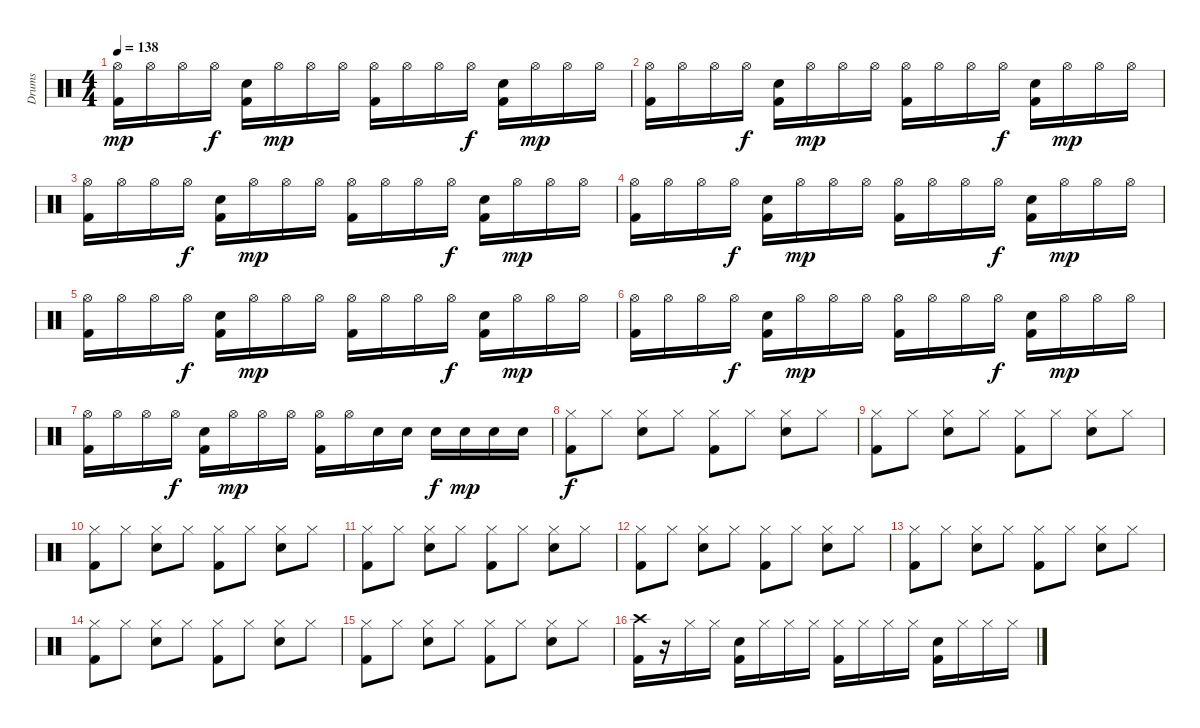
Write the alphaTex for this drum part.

\track ("Drums" "Drums") {instrument percussion}
\staff {score}
\articulation defaults
\ts (4 4)
\tempo 138
\clef neutral
\ks c
("Hi-Hat (open)" "Kick (hit) 2").16{dy mp} "Hi-Hat (open)".16 "Hi-Hat (open)".16 "Hi-Hat (open)".16{dy f} ("Electric Snare (hit)" "Kick (hit) 2").16 "Hi-Hat (open)".16{dy mp} "Hi-Hat (open)".16 "Hi-Hat (open)".16 ("Hi-Hat (open)" "Kick (hit) 2").16 "Hi-Hat (open)".16 "Hi-Hat (open)".16 "Hi-Hat (open)".16{dy f} ("Electric Snare (hit)" "Kick (hit) 2").16 "Hi-Hat (open)".16{dy mp} "Hi-Hat (open)".16 "Hi-Hat (open)".16 |
("Hi-Hat (open)" "Kick (hit) 2").16 "Hi-Hat (open)".16 "Hi-Hat (open)".16 "Hi-Hat (open)".16{dy f} ("Electric Snare (hit)" "Kick (hit) 2").16 "Hi-Hat (open)".16{dy mp} "Hi-Hat (open)".16 "Hi-Hat (open)".16 ("Hi-Hat (open)" "Kick (hit) 2").16 "Hi-Hat (open)".16 "Hi-Hat (open)".16 "Hi-Hat (open)".16{dy f} ("Electric Snare (hit)" "Kick (hit) 2").16 "Hi-Hat (open)".16{dy mp} "Hi-Hat (open)".16 "Hi-Hat (open)".16 |
("Hi-Hat (open)" "Kick (hit) 2").16 "Hi-Hat (open)".16 "Hi-Hat (open)".16 "Hi-Hat (open)".16{dy f} ("Electric Snare (hit)" "Kick (hit) 2").16 "Hi-Hat (open)".16{dy mp} "Hi-Hat (open)".16 "Hi-Hat (open)".16 ("Hi-Hat (open)" "Kick (hit) 2").16 "Hi-Hat (open)".16 "Hi-Hat (open)".16 "Hi-Hat (open)".16{dy f} ("Electric Snare (hit)" "Kick (hit) 2").16 "Hi-Hat (open)".16{dy mp} "Hi-Hat (open)".16 "Hi-Hat (open)".16 |
("Hi-Hat (open)" "Kick (hit) 2").16 "Hi-Hat (open)".16 "Hi-Hat (open)".16 "Hi-Hat (open)".16{dy f} ("Electric Snare (hit)" "Kick (hit) 2").16 "Hi-Hat (open)".16{dy mp} "Hi-Hat (open)".16 "Hi-Hat (open)".16 ("Hi-Hat (open)" "Kick (hit) 2").16 "Hi-Hat (open)".16 "Hi-Hat (open)".16 "Hi-Hat (open)".16{dy f} ("Electric Snare (hit)" "Kick (hit) 2").16 "Hi-Hat (open)".16{dy mp} "Hi-Hat (open)".16 "Hi-Hat (open)".16 |
("Hi-Hat (open)" "Kick (hit) 2").16 "Hi-Hat (open)".16 "Hi-Hat (open)".16 "Hi-Hat (open)".16{dy f} ("Electric Snare (hit)" "Kick (hit) 2").16 "Hi-Hat (open)".16{dy mp} "Hi-Hat (open)".16 "Hi-Hat (open)".16 ("Hi-Hat (open)" "Kick (hit) 2").16 "Hi-Hat (open)".16 "Hi-Hat (open)".16 "Hi-Hat (open)".16{dy f} ("Electric Snare (hit)" "Kick (hit) 2").16 "Hi-Hat (open)".16{dy mp} "Hi-Hat (open)".16 "Hi-Hat (open)".16 |
("Hi-Hat (open)" "Kick (hit) 2").16 "Hi-Hat (open)".16 "Hi-Hat (open)".16 "Hi-Hat (open)".16{dy f} ("Electric Snare (hit)" "Kick (hit) 2").16 "Hi-Hat (open)".16{dy mp} "Hi-Hat (open)".16 "Hi-Hat (open)".16 ("Hi-Hat (open)" "Kick (hit) 2").16 "Hi-Hat (open)".16 "Hi-Hat (open)".16 "Hi-Hat (open)".16{dy f} ("Electric Snare (hit)" "Kick (hit) 2").16 "Hi-Hat (open)".16{dy mp} "Hi-Hat (open)".16 "Hi-Hat (open)".16 |
("Hi-Hat (open)" "Kick (hit) 2").16 "Hi-Hat (open)".16 "Hi-Hat (open)".16 "Hi-Hat (open)".16{dy f} ("Electric Snare (hit)" "Kick (hit) 2").16 "Hi-Hat (open)".16{dy mp} "Hi-Hat (open)".16 "Hi-Hat (open)".16 ("Hi-Hat (open)" "Kick (hit) 2").16 "Hi-Hat (open)".16 "Electric Snare (hit)".16 "Electric Snare (hit)".16 "Electric Snare (hit)".16{dy f} "Electric Snare (hit)".16{dy mp} "Electric Snare (hit)".16 "Electric Snare (hit)".16 |
("Hi-Hat (closed)" "Kick (hit) 2").8{dy f} "Hi-Hat (closed)".8 ("Hi-Hat (closed)" "Electric Snare (hit)").8 "Hi-Hat (closed)".8 ("Hi-Hat (closed)" "Kick (hit) 2").8 "Hi-Hat (closed)".8 ("Hi-Hat (closed)" "Electric Snare (hit)").8 "Hi-Hat (closed)".8 |
("Hi-Hat (closed)" "Kick (hit) 2").8 "Hi-Hat (closed)".8 ("Hi-Hat (closed)" "Electric Snare (hit)").8 "Hi-Hat (closed)".8 ("Hi-Hat (closed)" "Kick (hit) 2").8 "Hi-Hat (closed)".8 ("Hi-Hat (closed)" "Electric Snare (hit)").8 "Hi-Hat (closed)".8 |
("Hi-Hat (closed)" "Kick (hit) 2").8 "Hi-Hat (closed)".8 ("Hi-Hat (closed)" "Electric Snare (hit)").8 "Hi-Hat (closed)".8 ("Hi-Hat (closed)" "Kick (hit) 2").8 "Hi-Hat (closed)".8 ("Hi-Hat (closed)" "Electric Snare (hit)").8 "Hi-Hat (closed)".8 |
("Hi-Hat (closed)" "Kick (hit) 2").8 "Hi-Hat (closed)".8 ("Hi-Hat (closed)" "Electric Snare (hit)").8 "Hi-Hat (closed)".8 ("Hi-Hat (closed)" "Kick (hit) 2").8 "Hi-Hat (closed)".8 ("Hi-Hat (closed)" "Electric Snare (hit)").8 "Hi-Hat (closed)".8 |
("Hi-Hat (closed)" "Kick (hit) 2").8 "Hi-Hat (closed)".8 ("Hi-Hat (closed)" "Electric Snare (hit)").8 "Hi-Hat (closed)".8 ("Hi-Hat (closed)" "Kick (hit) 2").8 "Hi-Hat (closed)".8 ("Hi-Hat (closed)" "Electric Snare (hit)").8 "Hi-Hat (closed)".8 |
("Hi-Hat (closed)" "Kick (hit) 2").8 "Hi-Hat (closed)".8 ("Hi-Hat (closed)" "Electric Snare (hit)").8 "Hi-Hat (closed)".8 ("Hi-Hat (closed)" "Kick (hit) 2").8 "Hi-Hat (closed)".8 ("Hi-Hat (closed)" "Electric Snare (hit)").8 "Hi-Hat (closed)".8 |
("Hi-Hat (closed)" "Kick (hit) 2").8 "Hi-Hat (closed)".8 ("Hi-Hat (closed)" "Electric Snare (hit)").8 "Hi-Hat (closed)".8 ("Hi-Hat (closed)" "Kick (hit) 2").8 "Hi-Hat (closed)".8 ("Hi-Hat (closed)" "Electric Snare (hit)").8 "Hi-Hat (closed)".8 |
("Hi-Hat (closed)" "Kick (hit) 2").8 "Hi-Hat (closed)".8 ("Hi-Hat (closed)" "Electric Snare (hit)").8 "Hi-Hat (closed)".8 ("Hi-Hat (closed)" "Kick (hit) 2").8 "Hi-Hat (closed)".8 ("Hi-Hat (closed)" "Electric Snare (hit)").8 "Hi-Hat (closed)".8 |
("Crash high (hit)" "Kick (hit) 2").16 r.16 "Hi-Hat (closed)".16 "Hi-Hat (closed)".16 ("Electric Snare (hit)" "Kick (hit) 2").16 "Hi-Hat (closed)".16 "Hi-Hat (closed)".16 "Hi-Hat (closed)".16 ("Hi-Hat (closed)" "Kick (hit) 2").16 "Hi-Hat (closed)".16 "Hi-Hat (closed)".16 "Hi-Hat (closed)".16 ("Electric Snare (hit)" "Kick (hit) 2").16 "Hi-Hat (closed)".16 "Hi-Hat (closed)".16 "Hi-Hat (closed)".16
